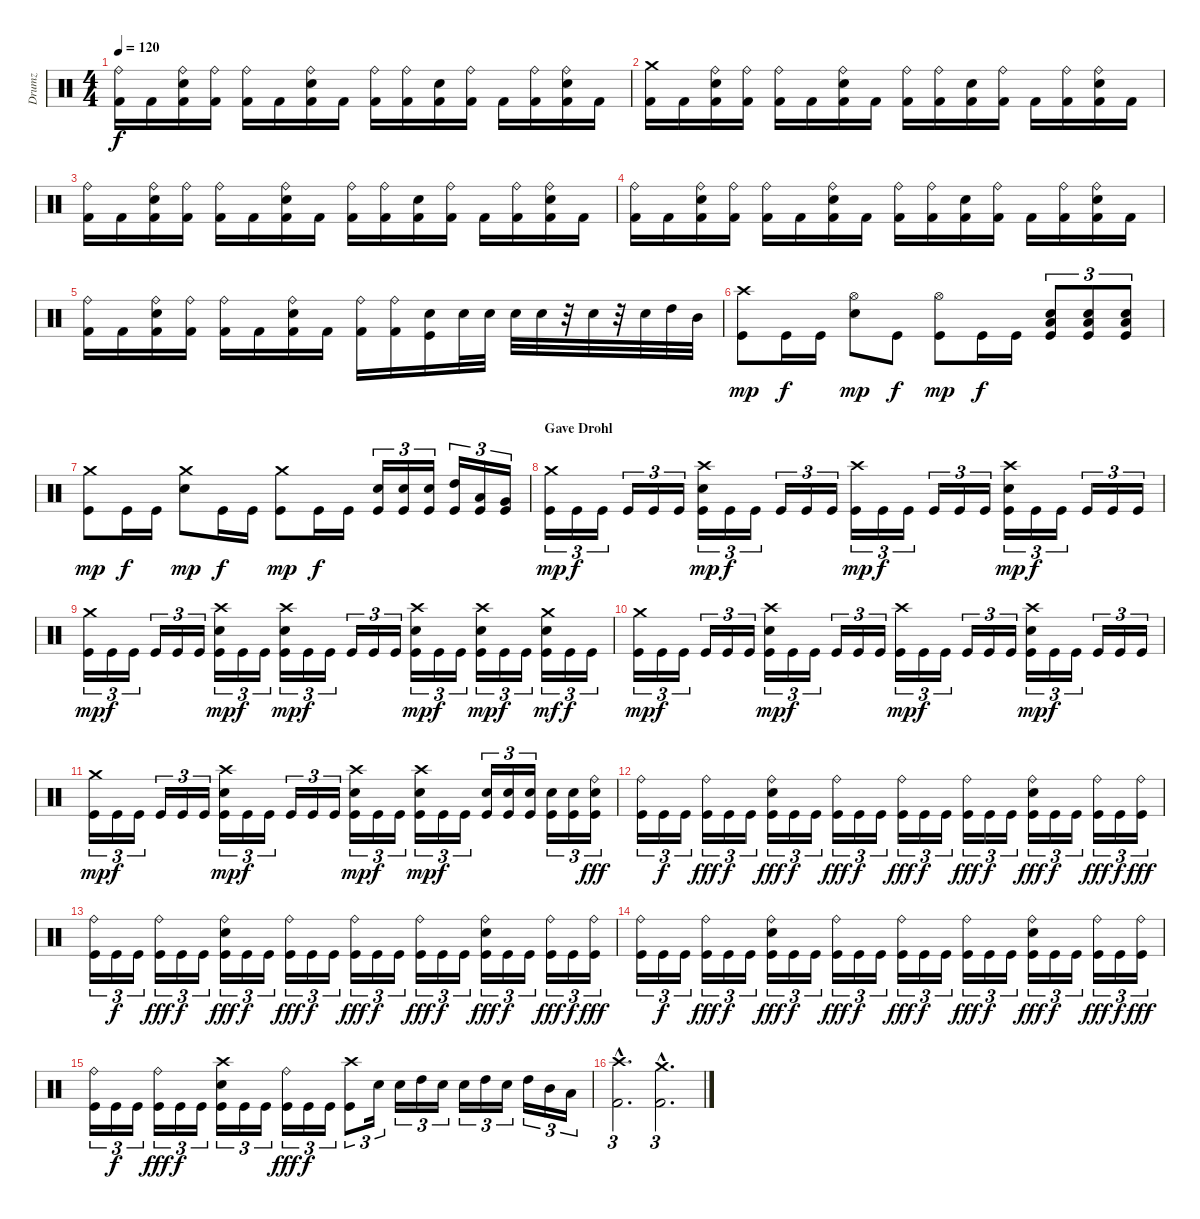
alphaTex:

\track ("Drumz" "Drumz") {instrument percussion}
\staff {score}
\articulation defaults
\ts (4 4)
\tempo 120
\clef neutral
\ks c
("Ride (bell)" "Kick (hit) 2").16{dy f} "Kick (hit) 2".16 ("Ride (bell)" "Snare (hit) 2" "Kick (hit) 2").16 ("Ride (bell)" "Kick (hit) 2").16 ("Ride (bell)" "Kick (hit) 2").16 "Kick (hit) 2".16 ("Ride (bell)" "Snare (hit) 2" "Kick (hit) 2").16 "Kick (hit) 2".16 ("Ride (bell)" "Kick (hit) 2").16 ("Ride (bell)" "Kick (hit) 2").16 ("Snare (hit) 2" "Kick (hit) 2").16 ("Ride (bell)" "Kick (hit) 2").16 "Kick (hit) 2".16 ("Ride (bell)" "Kick (hit) 2").16 ("Ride (bell)" "Snare (hit) 2" "Kick (hit) 2").16 "Kick (hit) 2".16 |
("Crash medium (hit)" "Kick (hit) 2").16 "Kick (hit) 2".16 ("Ride (bell)" "Snare (hit) 2" "Kick (hit) 2").16 ("Ride (bell)" "Kick (hit) 2").16 ("Ride (bell)" "Kick (hit) 2").16 "Kick (hit) 2".16 ("Ride (bell)" "Snare (hit) 2" "Kick (hit) 2").16 "Kick (hit) 2".16 ("Ride (bell)" "Kick (hit) 2").16 ("Ride (bell)" "Kick (hit) 2").16 ("Snare (hit) 2" "Kick (hit) 2").16 ("Ride (bell)" "Kick (hit) 2").16 "Kick (hit) 2".16 ("Ride (bell)" "Kick (hit) 2").16 ("Ride (bell)" "Snare (hit) 2" "Kick (hit) 2").16 "Kick (hit) 2".16 |
("Ride (bell)" "Kick (hit) 2").16 "Kick (hit) 2".16 ("Ride (bell)" "Snare (hit) 2" "Kick (hit) 2").16 ("Ride (bell)" "Kick (hit) 2").16 ("Ride (bell)" "Kick (hit) 2").16 "Kick (hit) 2".16 ("Ride (bell)" "Snare (hit) 2" "Kick (hit) 2").16 "Kick (hit) 2".16 ("Ride (bell)" "Kick (hit) 2").16 ("Ride (bell)" "Kick (hit) 2").16 ("Snare (hit) 2" "Kick (hit) 2").16 ("Ride (bell)" "Kick (hit) 2").16 "Kick (hit) 2".16 ("Ride (bell)" "Kick (hit) 2").16 ("Ride (bell)" "Snare (hit) 2" "Kick (hit) 2").16 "Kick (hit) 2".16 |
("Ride (bell)" "Kick (hit) 2").16 "Kick (hit) 2".16 ("Ride (bell)" "Snare (hit) 2" "Kick (hit) 2").16 ("Ride (bell)" "Kick (hit) 2").16 ("Ride (bell)" "Kick (hit) 2").16 "Kick (hit) 2".16 ("Ride (bell)" "Snare (hit) 2" "Kick (hit) 2").16 "Kick (hit) 2".16 ("Ride (bell)" "Kick (hit) 2").16 ("Ride (bell)" "Kick (hit) 2").16 ("Snare (hit) 2" "Kick (hit) 2").16 ("Ride (bell)" "Kick (hit) 2").16 "Kick (hit) 2".16 ("Ride (bell)" "Kick (hit) 2").16 ("Ride (bell)" "Snare (hit) 2" "Kick (hit) 2").16 "Kick (hit) 2".16 |
("Ride (bell)" "Kick (hit) 2").16 "Kick (hit) 2".16 ("Ride (bell)" "Snare (hit) 2" "Kick (hit) 2").16 ("Ride (bell)" "Kick (hit) 2").16 ("Ride (bell)" "Kick (hit) 2").16 "Kick (hit) 2".16 ("Ride (bell)" "Snare (hit) 2" "Kick (hit) 2").16 "Kick (hit) 2".16 ("Ride (bell)" "Kick (hit) 2").16 ("Ride (bell)" "Kick (hit) 2").16 ("Snare (hit) 2" "Kick (hit)").16 "Electric Snare (hit)".32 "Electric Snare (hit)".32 "Electric Snare (hit)".32 "Electric Snare (hit)".32 r.32 "Electric Snare (hit)".32 r.32 "Electric Snare (hit)".32 "High Tom (hit)".32 "Mid Tom (hit)".32 |
("Crash high (hit)" "Kick (hit)").8{dy mp volume 16} "Kick (hit)".16{dy f} "Kick (hit)".16 ("Hi-Hat (open)" "Electric Snare (hit)").8{dy mp} "Kick (hit)".8{dy f} ("Hi-Hat (open)" "Kick (hit)").8{dy mp} "Kick (hit)".16{dy f} "Kick (hit)".16 ("Low Floor Tom (hit)" "Electric Snare (hit)" "Kick (hit)").8{tu (3 2)} ("Low Floor Tom (hit)" "Electric Snare (hit)" "Kick (hit)").8{tu (3 2)} ("Low Floor Tom (hit)" "Electric Snare (hit)" "Kick (hit)").8{tu (3 2)} |
("Crash medium (hit)" "Kick (hit)").8{dy mp} "Kick (hit)".16{dy f} "Kick (hit)".16 ("Crash medium (hit)" "Electric Snare (hit)").8{dy mp} "Kick (hit)".16{dy f} "Kick (hit)".16 ("Crash medium (hit)" "Kick (hit)").8{dy mp} "Kick (hit)".16{dy f} "Kick (hit)".16 ("Electric Snare (hit)" "Kick (hit)").16{tu (3 2)} ("Electric Snare (hit)" "Kick (hit)").16{tu (3 2)} ("Electric Snare (hit)" "Kick (hit)").16{tu (3 2)} ("High Tom (hit)" "Kick (hit)").16{tu (3 2)} ("Low Tom (hit)" "Kick (hit)").16{tu (3 2)} ("Very Low Tom (hit)" "Kick (hit)").16{tu (3 2)} |
\section ("" "Gave Drohl")
("Crash medium (hit)" "Kick (hit)").16{tu (3 2) dy mp volume 16} "Kick (hit)".16{tu (3 2) dy f} "Kick (hit)".16{tu (3 2)} "Kick (hit)".16{tu (3 2)} "Kick (hit)".16{tu (3 2)} "Kick (hit)".16{tu (3 2)} ("Crash high (hit)" "Electric Snare (hit)" "Kick (hit)").16{tu (3 2) dy mp} "Kick (hit)".16{tu (3 2) dy f} "Kick (hit)".16{tu (3 2)} "Kick (hit)".16{tu (3 2)} "Kick (hit)".16{tu (3 2)} "Kick (hit)".16{tu (3 2)} ("Crash high (hit)" "Kick (hit)").16{tu (3 2) dy mp} "Kick (hit)".16{tu (3 2) dy f} "Kick (hit)".16{tu (3 2)} "Kick (hit)".16{tu (3 2)} "Kick (hit)".16{tu (3 2)} "Kick (hit)".16{tu (3 2)} ("Crash high (hit)" "Electric Snare (hit)" "Kick (hit)").16{tu (3 2) dy mp} "Kick (hit)".16{tu (3 2) dy f} "Kick (hit)".16{tu (3 2)} "Kick (hit)".16{tu (3 2)} "Kick (hit)".16{tu (3 2)} "Kick (hit)".16{tu (3 2)} |
("Crash medium (hit)" "Kick (hit)").16{tu (3 2) dy mp} "Kick (hit)".16{tu (3 2) dy f} "Kick (hit)".16{tu (3 2)} "Kick (hit)".16{tu (3 2)} "Kick (hit)".16{tu (3 2)} "Kick (hit)".16{tu (3 2)} ("Crash high (hit)" "Electric Snare (hit)" "Kick (hit)").16{tu (3 2) dy mp} "Kick (hit)".16{tu (3 2) dy f} "Kick (hit)".16{tu (3 2)} ("Crash high (hit)" "Electric Snare (hit)" "Kick (hit)").16{tu (3 2) dy mp} "Kick (hit)".16{tu (3 2) dy f} "Kick (hit)".16{tu (3 2)} "Kick (hit)".16{tu (3 2)} "Kick (hit)".16{tu (3 2)} "Kick (hit)".16{tu (3 2)} ("Crash high (hit)" "Electric Snare (hit)" "Kick (hit)").16{tu (3 2) dy mp} "Kick (hit)".16{tu (3 2) dy f} "Kick (hit)".16{tu (3 2)} ("Crash high (hit)" "Electric Snare (hit)" "Kick (hit)").16{tu (3 2) dy mp} "Kick (hit)".16{tu (3 2) dy f} "Kick (hit)".16{tu (3 2)} ("Crash medium (hit)" "Electric Snare (hit)" "Kick (hit)").16{tu (3 2) dy mf} "Kick (hit)".16{tu (3 2) dy f} "Kick (hit)".16{tu (3 2)} |
("Crash medium (hit)" "Kick (hit)").16{tu (3 2) dy mp} "Kick (hit)".16{tu (3 2) dy f} "Kick (hit)".16{tu (3 2)} "Kick (hit)".16{tu (3 2)} "Kick (hit)".16{tu (3 2)} "Kick (hit)".16{tu (3 2)} ("Crash high (hit)" "Electric Snare (hit)" "Kick (hit)").16{tu (3 2) dy mp} "Kick (hit)".16{tu (3 2) dy f} "Kick (hit)".16{tu (3 2)} "Kick (hit)".16{tu (3 2)} "Kick (hit)".16{tu (3 2)} "Kick (hit)".16{tu (3 2)} ("Crash high (hit)" "Kick (hit)").16{tu (3 2) dy mp} "Kick (hit)".16{tu (3 2) dy f} "Kick (hit)".16{tu (3 2)} "Kick (hit)".16{tu (3 2)} "Kick (hit)".16{tu (3 2)} "Kick (hit)".16{tu (3 2)} ("Crash high (hit)" "Electric Snare (hit)" "Kick (hit)").16{tu (3 2) dy mp} "Kick (hit)".16{tu (3 2) dy f} "Kick (hit)".16{tu (3 2)} "Kick (hit)".16{tu (3 2)} "Kick (hit)".16{tu (3 2)} "Kick (hit)".16{tu (3 2)} |
("Crash medium (hit)" "Kick (hit)").16{tu (3 2) dy mp} "Kick (hit)".16{tu (3 2) dy f} "Kick (hit)".16{tu (3 2)} "Kick (hit)".16{tu (3 2)} "Kick (hit)".16{tu (3 2)} "Kick (hit)".16{tu (3 2)} ("Crash high (hit)" "Electric Snare (hit)" "Kick (hit)").16{tu (3 2) dy mp} "Kick (hit)".16{tu (3 2) dy f} "Kick (hit)".16{tu (3 2)} "Kick (hit)".16{tu (3 2)} "Kick (hit)".16{tu (3 2)} "Kick (hit)".16{tu (3 2)} ("Crash high (hit)" "Electric Snare (hit)" "Kick (hit)").16{tu (3 2) dy mp} "Kick (hit)".16{tu (3 2) dy f} "Kick (hit)".16{tu (3 2)} ("Crash high (hit)" "Electric Snare (hit)" "Kick (hit)").16{tu (3 2) dy mp} "Kick (hit)".16{tu (3 2) dy f} "Kick (hit)".16{tu (3 2)} ("Electric Snare (hit)" "Kick (hit)").16{tu (3 2)} ("Electric Snare (hit)" "Kick (hit)").16{tu (3 2)} ("Electric Snare (hit)" "Kick (hit)").16{tu (3 2)} ("Electric Snare (hit)" "Kick (hit)").16{tu (3 2)} ("Electric Snare (hit)" "Kick (hit)").16{tu (3 2)} ("Ride (bell)" "Electric Snare (hit)" "Kick (hit)").16{tu (3 2) dy fff} |
("Ride (bell)" "Kick (hit)").16{tu (3 2)} "Kick (hit)".16{tu (3 2) dy f} "Kick (hit)".16{tu (3 2)} ("Ride (bell)" "Kick (hit)").16{tu (3 2) dy fff} "Kick (hit)".16{tu (3 2) dy f} "Kick (hit)".16{tu (3 2)} ("Ride (bell)" "Electric Snare (hit)" "Kick (hit)").16{tu (3 2) dy fff} "Kick (hit)".16{tu (3 2) dy f} "Kick (hit)".16{tu (3 2)} ("Ride (bell)" "Kick (hit)").16{tu (3 2) dy fff} "Kick (hit)".16{tu (3 2) dy f} "Kick (hit)".16{tu (3 2)} ("Ride (bell)" "Kick (hit)").16{tu (3 2) dy fff} "Kick (hit)".16{tu (3 2) dy f} "Kick (hit)".16{tu (3 2)} ("Ride (bell)" "Kick (hit)").16{tu (3 2) dy fff} "Kick (hit)".16{tu (3 2) dy f} "Kick (hit)".16{tu (3 2)} ("Ride (bell)" "Electric Snare (hit)" "Kick (hit)").16{tu (3 2) dy fff} "Kick (hit)".16{tu (3 2) dy f} "Kick (hit)".16{tu (3 2)} ("Ride (bell)" "Kick (hit)").16{tu (3 2) dy fff} "Kick (hit)".16{tu (3 2) dy f} ("Ride (bell)" "Kick (hit)").16{tu (3 2) dy fff} |
("Ride (bell)" "Kick (hit)").16{tu (3 2)} "Kick (hit)".16{tu (3 2) dy f} "Kick (hit)".16{tu (3 2)} ("Ride (bell)" "Kick (hit)").16{tu (3 2) dy fff} "Kick (hit)".16{tu (3 2) dy f} "Kick (hit)".16{tu (3 2)} ("Ride (bell)" "Electric Snare (hit)" "Kick (hit)").16{tu (3 2) dy fff} "Kick (hit)".16{tu (3 2) dy f} "Kick (hit)".16{tu (3 2)} ("Ride (bell)" "Kick (hit)").16{tu (3 2) dy fff} "Kick (hit)".16{tu (3 2) dy f} "Kick (hit)".16{tu (3 2)} ("Ride (bell)" "Kick (hit)").16{tu (3 2) dy fff} "Kick (hit)".16{tu (3 2) dy f} "Kick (hit)".16{tu (3 2)} ("Ride (bell)" "Kick (hit)").16{tu (3 2) dy fff} "Kick (hit)".16{tu (3 2) dy f} "Kick (hit)".16{tu (3 2)} ("Ride (bell)" "Electric Snare (hit)" "Kick (hit)").16{tu (3 2) dy fff} "Kick (hit)".16{tu (3 2) dy f} "Kick (hit)".16{tu (3 2)} ("Ride (bell)" "Kick (hit)").16{tu (3 2) dy fff} "Kick (hit)".16{tu (3 2) dy f} ("Ride (bell)" "Kick (hit)").16{tu (3 2) dy fff} |
("Ride (bell)" "Kick (hit)").16{tu (3 2)} "Kick (hit)".16{tu (3 2) dy f} "Kick (hit)".16{tu (3 2)} ("Ride (bell)" "Kick (hit)").16{tu (3 2) dy fff} "Kick (hit)".16{tu (3 2) dy f} "Kick (hit)".16{tu (3 2)} ("Ride (bell)" "Electric Snare (hit)" "Kick (hit)").16{tu (3 2) dy fff} "Kick (hit)".16{tu (3 2) dy f} "Kick (hit)".16{tu (3 2)} ("Ride (bell)" "Kick (hit)").16{tu (3 2) dy fff} "Kick (hit)".16{tu (3 2) dy f} "Kick (hit)".16{tu (3 2)} ("Ride (bell)" "Kick (hit)").16{tu (3 2) dy fff} "Kick (hit)".16{tu (3 2) dy f} "Kick (hit)".16{tu (3 2)} ("Ride (bell)" "Kick (hit)").16{tu (3 2) dy fff} "Kick (hit)".16{tu (3 2) dy f} "Kick (hit)".16{tu (3 2)} ("Ride (bell)" "Electric Snare (hit)" "Kick (hit)").16{tu (3 2) dy fff} "Kick (hit)".16{tu (3 2) dy f} "Kick (hit)".16{tu (3 2)} ("Ride (bell)" "Kick (hit)").16{tu (3 2) dy fff} "Kick (hit)".16{tu (3 2) dy f} ("Ride (bell)" "Kick (hit)").16{tu (3 2) dy fff} |
("Ride (bell)" "Kick (hit)").16{tu (3 2)} "Kick (hit)".16{tu (3 2) dy f} "Kick (hit)".16{tu (3 2)} ("Ride (bell)" "Kick (hit)").16{tu (3 2) dy fff} "Kick (hit)".16{tu (3 2) dy f} "Kick (hit)".16{tu (3 2)} ("Crash high (hit)" "Electric Snare (hit)" "Kick (hit)").16{tu (3 2)} "Kick (hit)".16{tu (3 2)} "Kick (hit)".16{tu (3 2)} ("Ride (bell)" "Kick (hit)").16{tu (3 2) dy fff} "Kick (hit)".16{tu (3 2) dy f} "Kick (hit)".16{tu (3 2)} ("Crash high (hit)" "Kick (hit)").8{tu (3 2)} "Electric Snare (hit)".16{tu (3 2)} "Electric Snare (hit)".16{tu (3 2)} "High Tom (hit)".16{tu (3 2)} "Electric Snare (hit)".16{tu (3 2)} "Electric Snare (hit)".16{tu (3 2)} "High Tom (hit)".16{tu (3 2)} "Electric Snare (hit)".16{tu (3 2)} "High Tom (hit)".16{tu (3 2)} "Mid Tom (hit)".16{tu (3 2)} "Low Tom (hit)".16{tu (3 2)} |
("Crash high (hit)"{hac} "Kick (hit) 2"{hac}).2{d tu (3 2)} ("Crash medium (hit)"{hac} "Kick (hit) 2"{hac}).2{d tu (3 2)}
